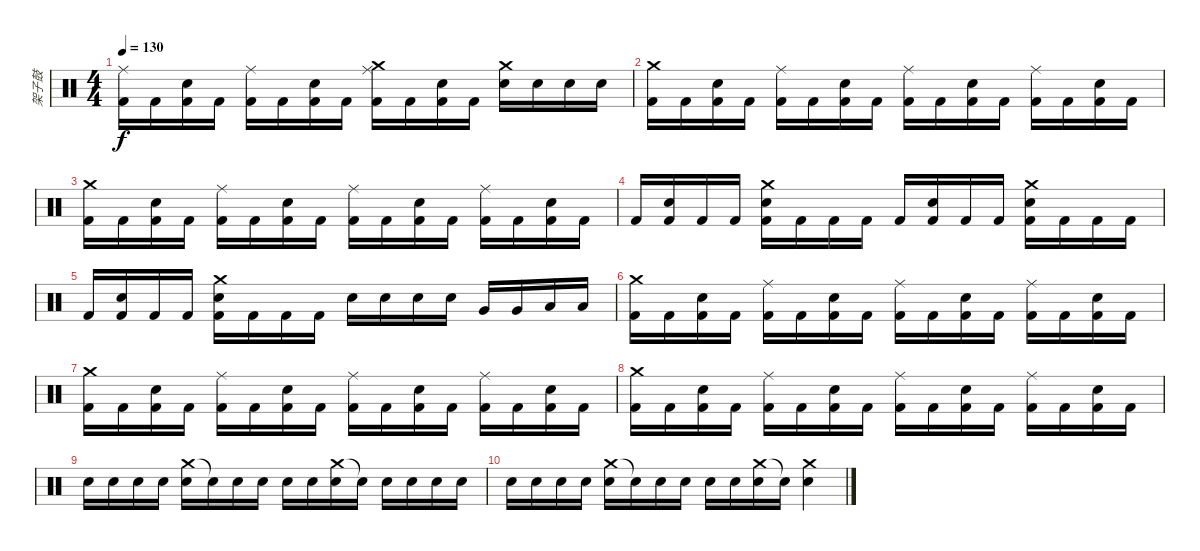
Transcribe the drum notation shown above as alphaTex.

\track ("架子鼓" "架子鼓") {instrument percussion}
\staff {score}
\articulation defaults
\ts (4 4)
\tempo 130
\clef neutral
\ks c
("Ride (middle)" "Kick (hit) 2").16{dy f} "Kick (hit) 2".16 ("Snare (hit) 2" "Kick (hit) 2").16 "Kick (hit) 2".16 ("Ride (middle)" "Kick (hit) 2").16 "Kick (hit) 2".16 ("Snare (hit) 2" "Kick (hit) 2").16 "Kick (hit) 2".16 ("Ride (middle)" "Crash medium (hit)" "Kick (hit) 2").16 "Kick (hit) 2".16 ("Snare (hit) 2" "Kick (hit) 2").16 "Kick (hit) 2".16 ("Crash medium (hit)" "Snare (hit) 2").16 "Snare (hit) 2".16 "Snare (hit) 2".16 "Snare (hit) 2".16 |
("Crash medium (hit)" "Kick (hit) 2").16 "Kick (hit) 2".16 ("Snare (hit) 2" "Kick (hit) 2").16 "Kick (hit) 2".16 ("Ride (middle)" "Kick (hit) 2").16 "Kick (hit) 2".16 ("Snare (hit) 2" "Kick (hit) 2").16 "Kick (hit) 2".16 ("Ride (middle)" "Kick (hit) 2").16 "Kick (hit) 2".16 ("Snare (hit) 2" "Kick (hit) 2").16 "Kick (hit) 2".16 ("Ride (middle)" "Kick (hit) 2").16 "Kick (hit) 2".16 ("Snare (hit) 2" "Kick (hit) 2").16 "Kick (hit) 2".16 |
("Crash medium (hit)" "Kick (hit) 2").16 "Kick (hit) 2".16 ("Snare (hit) 2" "Kick (hit) 2").16 "Kick (hit) 2".16 ("Ride (middle)" "Kick (hit) 2").16 "Kick (hit) 2".16 ("Snare (hit) 2" "Kick (hit) 2").16 "Kick (hit) 2".16 ("Ride (middle)" "Kick (hit) 2").16 "Kick (hit) 2".16 ("Snare (hit) 2" "Kick (hit) 2").16 "Kick (hit) 2".16 ("Ride (middle)" "Kick (hit) 2").16 "Kick (hit) 2".16 ("Snare (hit) 2" "Kick (hit) 2").16 "Kick (hit) 2".16 |
"Kick (hit) 2".16 ("Snare (hit) 2" "Kick (hit) 2").16 "Kick (hit) 2".16 "Kick (hit) 2".16 ("Crash medium (hit)" "Snare (hit) 2" "Kick (hit) 2").16 "Kick (hit) 2".16 "Kick (hit) 2".16 "Kick (hit) 2".16 "Kick (hit) 2".16 ("Snare (hit) 2" "Kick (hit) 2").16 "Kick (hit) 2".16 "Kick (hit) 2".16 ("Crash medium (hit)" "Snare (hit) 2" "Kick (hit) 2").16 "Kick (hit) 2".16 "Kick (hit) 2".16 "Kick (hit) 2".16 |
"Kick (hit) 2".16 ("Snare (hit) 2" "Kick (hit) 2").16 "Kick (hit) 2".16 "Kick (hit) 2".16 ("Crash medium (hit)" "Snare (hit) 2" "Kick (hit) 2").16 "Kick (hit) 2".16 "Kick (hit) 2".16 "Kick (hit) 2".16 "Snare (hit) 2".16 "Snare (hit) 2".16 "Snare (hit) 2".16 "Snare (hit) 2".16 "Very Low Tom (hit)".16 "Very Low Tom (hit)".16 "Low Floor Tom (hit)".16 "Low Floor Tom (hit)".16 |
("Crash medium (hit)" "Kick (hit) 2").16 "Kick (hit) 2".16 ("Snare (hit) 2" "Kick (hit) 2").16 "Kick (hit) 2".16 ("Ride (middle)" "Kick (hit) 2").16 "Kick (hit) 2".16 ("Snare (hit) 2" "Kick (hit) 2").16 "Kick (hit) 2".16 ("Ride (middle)" "Kick (hit) 2").16 "Kick (hit) 2".16 ("Snare (hit) 2" "Kick (hit) 2").16 "Kick (hit) 2".16 ("Ride (middle)" "Kick (hit) 2").16 "Kick (hit) 2".16 ("Snare (hit) 2" "Kick (hit) 2").16 "Kick (hit) 2".16 |
("Crash medium (hit)" "Kick (hit) 2").16 "Kick (hit) 2".16 ("Snare (hit) 2" "Kick (hit) 2").16 "Kick (hit) 2".16 ("Ride (middle)" "Kick (hit) 2").16 "Kick (hit) 2".16 ("Snare (hit) 2" "Kick (hit) 2").16 "Kick (hit) 2".16 ("Ride (middle)" "Kick (hit) 2").16 "Kick (hit) 2".16 ("Snare (hit) 2" "Kick (hit) 2").16 "Kick (hit) 2".16 ("Ride (middle)" "Kick (hit) 2").16 "Kick (hit) 2".16 ("Snare (hit) 2" "Kick (hit) 2").16 "Kick (hit) 2".16 |
("Crash medium (hit)" "Kick (hit) 2").16 "Kick (hit) 2".16 ("Snare (hit) 2" "Kick (hit) 2").16 "Kick (hit) 2".16 ("Ride (middle)" "Kick (hit) 2").16 "Kick (hit) 2".16 ("Snare (hit) 2" "Kick (hit) 2").16 "Kick (hit) 2".16 ("Ride (middle)" "Kick (hit) 2").16 "Kick (hit) 2".16 ("Snare (hit) 2" "Kick (hit) 2").16 "Kick (hit) 2".16 ("Ride (middle)" "Kick (hit) 2").16 "Kick (hit) 2".16 ("Snare (hit) 2" "Kick (hit) 2").16 "Kick (hit) 2".16 |
"Snare (hit) 2".16 "Snare (hit) 2".16 "Snare (hit) 2".16 "Snare (hit) 2".16 ("Crash medium (hit)" "Snare (hit) 2").16 "Snare (hit)"{t}.16 "Snare (hit) 2".16 "Snare (hit) 2".16 "Snare (hit) 2".16 "Snare (hit) 2".16 ("Crash medium (hit)" "Snare (hit) 2").16 "Snare (hit)"{t}.16 "Snare (hit) 2".16 "Snare (hit) 2".16 "Snare (hit) 2".16 "Snare (hit) 2".16 |
"Snare (hit) 2".16 "Snare (hit) 2".16 "Snare (hit) 2".16 "Snare (hit) 2".16 ("Crash medium (hit)" "Snare (hit) 2").16 "Snare (hit)"{t}.16 "Snare (hit) 2".16 "Snare (hit) 2".16 "Snare (hit) 2".16 "Snare (hit) 2".16 ("Crash medium (hit)" "Snare (hit) 2").16 "Snare (hit)"{t}.16 ("Crash medium (hit)" "Snare (hit) 2").4
